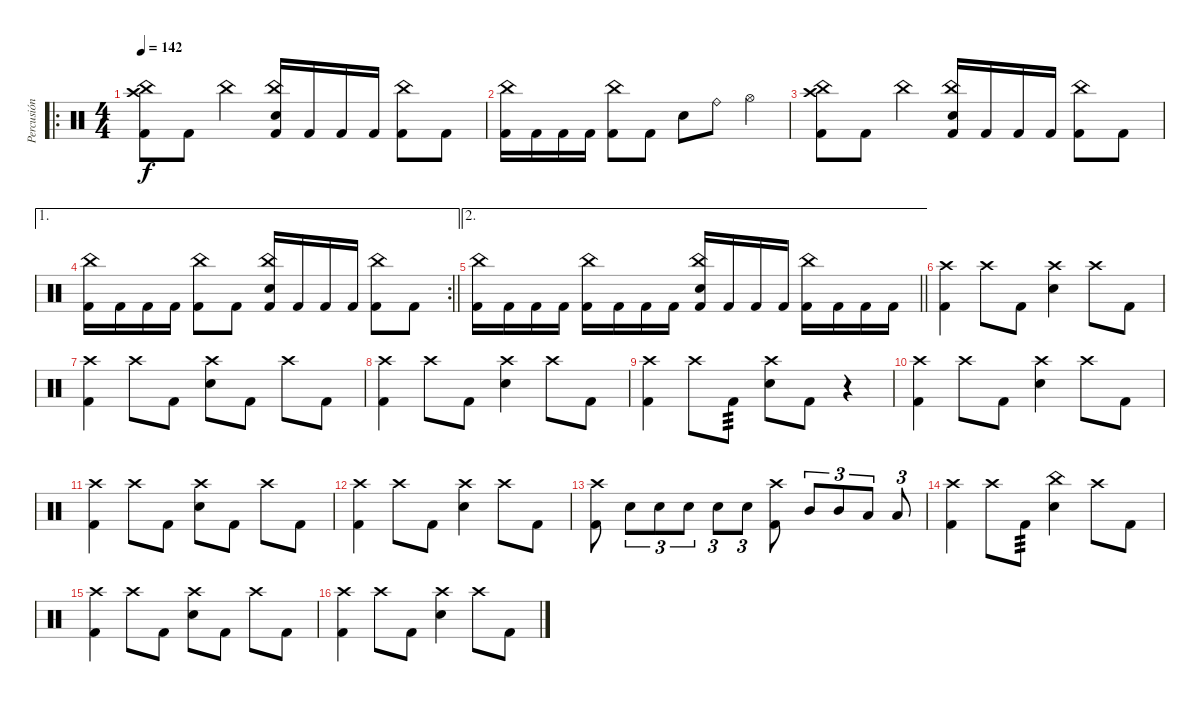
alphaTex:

\track ("Percusión" "Percusión") {instrument percussion}
\staff
\articulation defaults
\ro
\ts (4 4)
\tempo 142
\clef neutral
\ks c
("Kick (hit) 2" "Crash high (hit)" "China (hit)").8{dy f} "Kick (hit) 2".8 "China (hit)".4 ("Kick (hit) 2" "China (hit)" "Electric Snare (hit)").16 "Kick (hit) 2".16 "Kick (hit) 2".16 "Kick (hit) 2".16 ("Kick (hit) 2" "China (hit)").8 "Kick (hit) 2".8 |
("Kick (hit) 2" "China (hit)").16 "Kick (hit) 2".16 "Kick (hit) 2".16 "Kick (hit) 2".16 ("Kick (hit) 2" "China (hit)").8 "Kick (hit) 2".8 "Electric Snare (hit)".8 "Ride (bell)".8 "Hi-Hat (open)".4 |
("Kick (hit) 2" "Crash high (hit)" "China (hit)").8 "Kick (hit) 2".8 "China (hit)".4 ("Kick (hit) 2" "China (hit)" "Electric Snare (hit)").16 "Kick (hit) 2".16 "Kick (hit) 2".16 "Kick (hit) 2".16 ("Kick (hit) 2" "China (hit)").8 "Kick (hit) 2".8 |
\ae 1
\rc 2
\barLineRight lightlight
("Kick (hit) 2" "China (hit)").16 "Kick (hit) 2".16 "Kick (hit) 2".16 "Kick (hit) 2".16 ("Kick (hit) 2" "China (hit)").8 "Kick (hit) 2".8 ("Kick (hit) 2" "China (hit)" "Electric Snare (hit)").16 "Kick (hit) 2".16 "Kick (hit) 2".16 "Kick (hit) 2".16 ("Kick (hit) 2" "China (hit)").8 "Kick (hit) 2".8 |
\ae 2
\barLineRight lightlight
("Kick (hit) 2" "China (hit)").16 "Kick (hit) 2".16 "Kick (hit) 2".16 "Kick (hit) 2".16 ("Kick (hit) 2" "China (hit)").16 "Kick (hit) 2".16 "Kick (hit) 2".16 "Kick (hit) 2".16 ("Kick (hit) 2" "China (hit)" "Electric Snare (hit)").16 "Kick (hit) 2".16 "Kick (hit) 2".16 "Kick (hit) 2".16 ("Kick (hit) 2" "China (hit)").16 "Kick (hit) 2".16 "Kick (hit) 2".16 "Kick (hit) 2".16 |
\section ("" "")
("Kick (hit) 2" "Crash high (hit)").4 "Crash high (hit)".8 "Kick (hit) 2".8 ("Crash high (hit)" "Electric Snare (hit)").4 "Crash high (hit)".8 "Kick (hit) 2".8 |
("Kick (hit) 2" "Crash high (hit)").4 "Crash high (hit)".8 "Kick (hit) 2".8 ("Crash high (hit)" "Electric Snare (hit)").8 "Kick (hit) 2".8 "Crash high (hit)".8 "Kick (hit) 2".8 |
("Kick (hit) 2" "Crash high (hit)").4 "Crash high (hit)".8 "Kick (hit) 2".8 ("Crash high (hit)" "Electric Snare (hit)").4 "Crash high (hit)".8 "Kick (hit) 2".8 |
("Kick (hit) 2" "Crash high (hit)").4 "Crash high (hit)".8 "Kick (hit) 2".8{tp 3} ("Crash high (hit)" "Electric Snare (hit)").8 "Kick (hit) 2".8 r.4 |
("Kick (hit) 2" "Crash high (hit)").4 "Crash high (hit)".8 "Kick (hit) 2".8 ("Crash high (hit)" "Electric Snare (hit)").4 "Crash high (hit)".8 "Kick (hit) 2".8 |
("Kick (hit) 2" "Crash high (hit)").4 "Crash high (hit)".8 "Kick (hit) 2".8 ("Crash high (hit)" "Electric Snare (hit)").8 "Kick (hit) 2".8 "Crash high (hit)".8 "Kick (hit) 2".8 |
("Kick (hit) 2" "Crash high (hit)").4 "Crash high (hit)".8 "Kick (hit) 2".8 ("Crash high (hit)" "Electric Snare (hit)").4 "Crash high (hit)".8 "Kick (hit) 2".8 |
("Kick (hit) 2" "Crash high (hit)").8 "Electric Snare (hit)".8{tu (3 2)} "Electric Snare (hit)".8{tu (3 2)} "Electric Snare (hit)".8{tu (3 2)} "Electric Snare (hit)".8{tu (3 2)} "Electric Snare (hit)".8{tu (3 2)} ("Kick (hit) 2" "Crash high (hit)").8 "Mid Tom (hit)".8{tu (3 2)} "Mid Tom (hit)".8{tu (3 2)} "Low Tom (hit)".8{tu (3 2)} "Low Tom (hit)".8{tu (3 2)} |
("Kick (hit) 2" "Crash high (hit)").4 "Crash high (hit)".8 "Kick (hit) 2".8{tp 3} ("China (hit)" "Electric Snare (hit)").4 "Crash high (hit)".8 "Kick (hit) 2".8 |
("Kick (hit) 2" "Crash high (hit)").4 "Crash high (hit)".8 "Kick (hit) 2".8 ("Crash high (hit)" "Electric Snare (hit)").8 "Kick (hit) 2".8 "Crash high (hit)".8 "Kick (hit) 2".8 |
("Kick (hit) 2" "Crash high (hit)").4 "Crash high (hit)".8 "Kick (hit) 2".8 ("Crash high (hit)" "Electric Snare (hit)").4 "Crash high (hit)".8 "Kick (hit) 2".8
